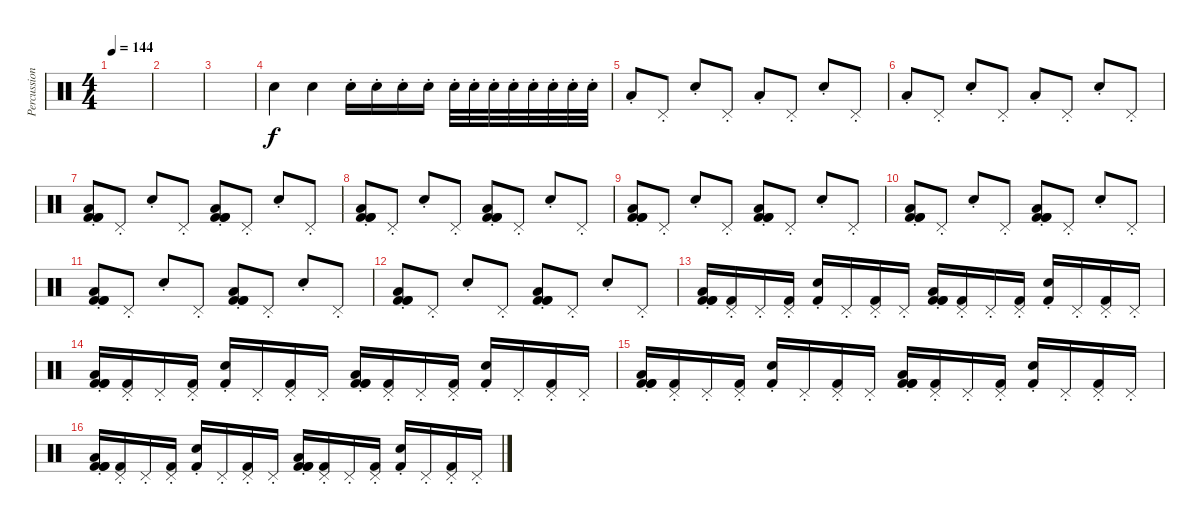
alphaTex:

\track ("Percussion" "Percussion") {instrument percussion}
\staff {score}
\articulation defaults
\ts (4 4)
\tempo 144
\clef neutral
\ks c
|
|
|
"Electric Snare (hit)".4 "Electric Snare (hit)".4 "Electric Snare (hit)"{st}.16 "Electric Snare (hit)"{st}.16 "Electric Snare (hit)"{st}.16 "Electric Snare (hit)"{st}.16 "Electric Snare (hit)"{st}.32 "Electric Snare (hit)"{st}.32 "Electric Snare (hit)"{st}.32 "Electric Snare (hit)"{st}.32 "Electric Snare (hit)"{st}.32 "Electric Snare (hit)"{st}.32 "Electric Snare (hit)"{st}.32 "Electric Snare (hit)"{st}.32 |
"Low Tom (hit)"{st}.8 "Pedal Hi-Hat (hit)"{st}.8 "Electric Snare (hit)"{st}.8 "Pedal Hi-Hat (hit)"{st}.8 "Low Tom (hit)"{st}.8 "Pedal Hi-Hat (hit)"{st}.8 "Electric Snare (hit)"{st}.8 "Pedal Hi-Hat (hit)"{st}.8 |
"Low Tom (hit)"{st}.8 "Pedal Hi-Hat (hit)"{st}.8 "Electric Snare (hit)"{st}.8 "Pedal Hi-Hat (hit)"{st}.8 "Low Tom (hit)"{st}.8 "Pedal Hi-Hat (hit)"{st}.8 "Electric Snare (hit)"{st}.8 "Pedal Hi-Hat (hit)"{st}.8 |
("Low Tom (hit)" "Kick (hit) 2" "Kick (hit) 2" "Kick (hit) 2"{st}).8 "Pedal Hi-Hat (hit)"{st}.8 "Electric Snare (hit)"{st}.8 "Pedal Hi-Hat (hit)"{st}.8 ("Low Tom (hit)" "Kick (hit) 2" "Kick (hit) 2" "Kick (hit) 2"{st}).8 "Pedal Hi-Hat (hit)"{st}.8 "Electric Snare (hit)"{st}.8 "Pedal Hi-Hat (hit)"{st}.8 |
("Low Tom (hit)" "Kick (hit) 2" "Kick (hit) 2" "Kick (hit) 2"{st}).8 "Pedal Hi-Hat (hit)"{st}.8 "Electric Snare (hit)"{st}.8 "Pedal Hi-Hat (hit)"{st}.8 ("Low Tom (hit)" "Kick (hit) 2" "Kick (hit) 2" "Kick (hit) 2"{st}).8 "Pedal Hi-Hat (hit)"{st}.8 "Electric Snare (hit)"{st}.8 "Pedal Hi-Hat (hit)"{st}.8 |
("Low Tom (hit)" "Kick (hit) 2" "Kick (hit) 2" "Kick (hit) 2"{st}).8 "Pedal Hi-Hat (hit)"{st}.8 "Electric Snare (hit)"{st}.8 "Pedal Hi-Hat (hit)"{st}.8 ("Low Tom (hit)" "Kick (hit) 2" "Kick (hit) 2" "Kick (hit) 2"{st}).8 "Pedal Hi-Hat (hit)"{st}.8 "Electric Snare (hit)"{st}.8 "Pedal Hi-Hat (hit)"{st}.8 |
("Low Tom (hit)" "Kick (hit) 2" "Kick (hit) 2" "Kick (hit) 2"{st}).8 "Pedal Hi-Hat (hit)"{st}.8 "Electric Snare (hit)"{st}.8 "Pedal Hi-Hat (hit)"{st}.8 ("Low Tom (hit)" "Kick (hit) 2" "Kick (hit) 2" "Kick (hit) 2"{st}).8 "Pedal Hi-Hat (hit)"{st}.8 "Electric Snare (hit)"{st}.8 "Pedal Hi-Hat (hit)"{st}.8 |
("Low Tom (hit)" "Kick (hit) 2" "Kick (hit) 2" "Kick (hit) 2"{st}).8 "Pedal Hi-Hat (hit)"{st}.8 "Electric Snare (hit)"{st}.8 "Pedal Hi-Hat (hit)"{st}.8 ("Low Tom (hit)" "Kick (hit) 2" "Kick (hit) 2" "Kick (hit) 2"{st}).8 "Pedal Hi-Hat (hit)"{st}.8 "Electric Snare (hit)"{st}.8 "Pedal Hi-Hat (hit)"{st}.8 |
("Low Tom (hit)" "Kick (hit) 2" "Kick (hit) 2" "Kick (hit) 2"{st}).8 "Pedal Hi-Hat (hit)"{st}.8 "Electric Snare (hit)"{st}.8 "Pedal Hi-Hat (hit)"{st}.8 ("Low Tom (hit)" "Kick (hit) 2" "Kick (hit) 2" "Kick (hit) 2"{st}).8 "Pedal Hi-Hat (hit)"{st}.8 "Electric Snare (hit)"{st}.8 "Pedal Hi-Hat (hit)"{st}.8 |
("Kick (hit) 2" "Kick (hit) 2" "Kick (hit) 2" "Low Tom (hit)"{st}).16 ("Pedal Hi-Hat (hit)"{st} "Kick (hit) 2"{st}).16 "Pedal Hi-Hat (hit)"{st}.16 ("Pedal Hi-Hat (hit)"{st} "Kick (hit) 2"{st}).16 ("Electric Snare (hit)"{st} "Kick (hit) 2"{st}).16 "Pedal Hi-Hat (hit)"{st}.16 ("Pedal Hi-Hat (hit)"{st} "Kick (hit) 2"{st}).16 "Pedal Hi-Hat (hit)"{st}.16 ("Kick (hit) 2" "Kick (hit) 2" "Kick (hit) 2" "Low Tom (hit)"{st}).16 ("Pedal Hi-Hat (hit)"{st} "Kick (hit) 2"{st}).16 "Pedal Hi-Hat (hit)"{st}.16 ("Pedal Hi-Hat (hit)"{st} "Kick (hit) 2"{st}).16 ("Electric Snare (hit)"{st} "Kick (hit) 2"{st}).16 "Pedal Hi-Hat (hit)"{st}.16 ("Pedal Hi-Hat (hit)"{st} "Kick (hit) 2"{st}).16 "Pedal Hi-Hat (hit)"{st}.16 |
("Kick (hit) 2" "Kick (hit) 2" "Kick (hit) 2" "Low Tom (hit)"{st}).16 ("Pedal Hi-Hat (hit)"{st} "Kick (hit) 2"{st}).16 "Pedal Hi-Hat (hit)"{st}.16 ("Pedal Hi-Hat (hit)"{st} "Kick (hit) 2"{st}).16 ("Electric Snare (hit)"{st} "Kick (hit) 2"{st}).16 "Pedal Hi-Hat (hit)"{st}.16 ("Pedal Hi-Hat (hit)"{st} "Kick (hit) 2"{st}).16 "Pedal Hi-Hat (hit)"{st}.16 ("Kick (hit) 2" "Kick (hit) 2" "Kick (hit) 2" "Low Tom (hit)"{st}).16 ("Pedal Hi-Hat (hit)"{st} "Kick (hit) 2"{st}).16 "Pedal Hi-Hat (hit)"{st}.16 ("Pedal Hi-Hat (hit)"{st} "Kick (hit) 2"{st}).16 ("Electric Snare (hit)"{st} "Kick (hit) 2"{st}).16 "Pedal Hi-Hat (hit)"{st}.16 ("Pedal Hi-Hat (hit)"{st} "Kick (hit) 2"{st}).16 "Pedal Hi-Hat (hit)"{st}.16 |
("Kick (hit) 2" "Kick (hit) 2" "Kick (hit) 2" "Low Tom (hit)"{st}).16 ("Pedal Hi-Hat (hit)"{st} "Kick (hit) 2"{st}).16 "Pedal Hi-Hat (hit)"{st}.16 ("Pedal Hi-Hat (hit)"{st} "Kick (hit) 2"{st}).16 ("Electric Snare (hit)"{st} "Kick (hit) 2"{st}).16 "Pedal Hi-Hat (hit)"{st}.16 ("Pedal Hi-Hat (hit)"{st} "Kick (hit) 2"{st}).16 "Pedal Hi-Hat (hit)"{st}.16 ("Kick (hit) 2" "Kick (hit) 2" "Kick (hit) 2" "Low Tom (hit)"{st}).16 ("Pedal Hi-Hat (hit)"{st} "Kick (hit) 2"{st}).16 "Pedal Hi-Hat (hit)"{st}.16 ("Pedal Hi-Hat (hit)"{st} "Kick (hit) 2"{st}).16 ("Electric Snare (hit)"{st} "Kick (hit) 2"{st}).16 "Pedal Hi-Hat (hit)"{st}.16 ("Pedal Hi-Hat (hit)"{st} "Kick (hit) 2"{st}).16 "Pedal Hi-Hat (hit)"{st}.16 |
("Kick (hit) 2" "Kick (hit) 2" "Kick (hit) 2" "Low Tom (hit)"{st}).16 ("Pedal Hi-Hat (hit)"{st} "Kick (hit) 2"{st}).16 "Pedal Hi-Hat (hit)"{st}.16 ("Pedal Hi-Hat (hit)"{st} "Kick (hit) 2"{st}).16 ("Electric Snare (hit)"{st} "Kick (hit) 2"{st}).16 "Pedal Hi-Hat (hit)"{st}.16 ("Pedal Hi-Hat (hit)"{st} "Kick (hit) 2"{st}).16 "Pedal Hi-Hat (hit)"{st}.16 ("Kick (hit) 2" "Kick (hit) 2" "Kick (hit) 2" "Low Tom (hit)"{st}).16 ("Pedal Hi-Hat (hit)"{st} "Kick (hit) 2"{st}).16 "Pedal Hi-Hat (hit)"{st}.16 ("Pedal Hi-Hat (hit)"{st} "Kick (hit) 2"{st}).16 ("Electric Snare (hit)"{st} "Kick (hit) 2"{st}).16 "Pedal Hi-Hat (hit)"{st}.16 ("Pedal Hi-Hat (hit)"{st} "Kick (hit) 2"{st}).16 "Pedal Hi-Hat (hit)"{st}.16
